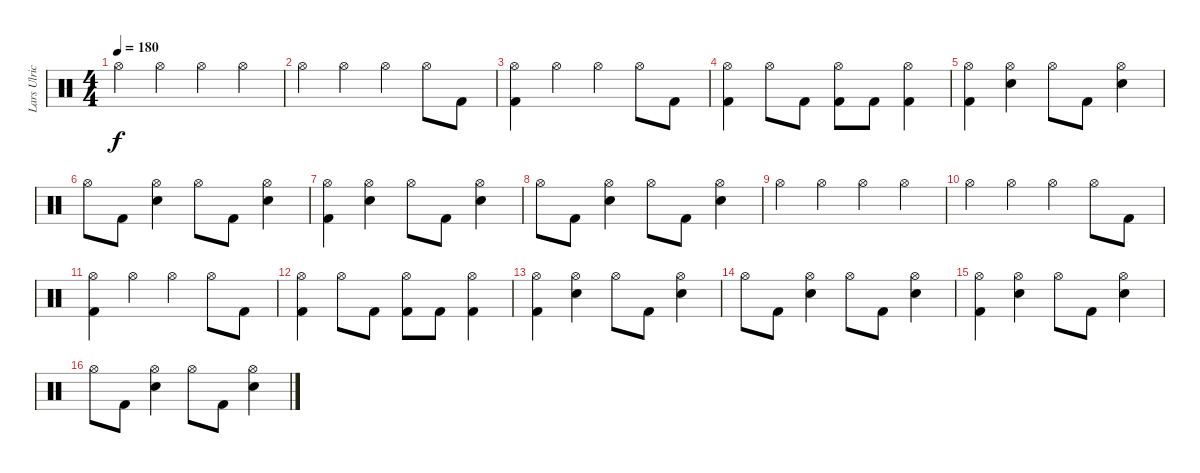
\track ("Lars Ulrich" "Lars Ulric") {instrument percussion}
\staff {score}
\articulation defaults
\ts (4 4)
\tempo 180
\clef neutral
\ks c "Hi-Hat (open)".4{dy f} "Hi-Hat (open)".4 "Hi-Hat (open)".4 "Hi-Hat (open)".4
|
"Hi-Hat (open)".4 "Hi-Hat (open)".4 "Hi-Hat (open)".4 "Hi-Hat (open)".8 "Kick (hit) 2".8 |
("Hi-Hat (open)" "Kick (hit) 2").4 "Hi-Hat (open)".4 "Hi-Hat (open)".4 "Hi-Hat (open)".8 "Kick (hit) 2".8 |
("Hi-Hat (open)" "Kick (hit) 2").4 "Hi-Hat (open)".8 "Kick (hit) 2".8 ("Hi-Hat (open)" "Kick (hit) 2").8 "Kick (hit) 2".8 ("Hi-Hat (open)" "Kick (hit) 2").4 |
("Hi-Hat (open)" "Kick (hit) 2").4 ("Hi-Hat (open)" "Electric Snare (hit)").4 "Hi-Hat (open)".8 "Kick (hit) 2".8 ("Hi-Hat (open)" "Electric Snare (hit)").4 |
"Hi-Hat (open)".8 "Kick (hit) 2".8 ("Hi-Hat (open)" "Electric Snare (hit)").4 "Hi-Hat (open)".8 "Kick (hit) 2".8 ("Hi-Hat (open)" "Electric Snare (hit)").4 |
("Hi-Hat (open)" "Kick (hit) 2").4 ("Hi-Hat (open)" "Electric Snare (hit)").4 "Hi-Hat (open)".8 "Kick (hit) 2".8 ("Hi-Hat (open)" "Electric Snare (hit)").4 |
"Hi-Hat (open)".8 "Kick (hit) 2".8 ("Hi-Hat (open)" "Electric Snare (hit)").4 "Hi-Hat (open)".8 "Kick (hit) 2".8 ("Hi-Hat (open)" "Electric Snare (hit)").4 |
"Hi-Hat (open)".4 "Hi-Hat (open)".4 "Hi-Hat (open)".4 "Hi-Hat (open)".4 |
"Hi-Hat (open)".4 "Hi-Hat (open)".4 "Hi-Hat (open)".4 "Hi-Hat (open)".8 "Kick (hit) 2".8 |
("Hi-Hat (open)" "Kick (hit) 2").4 "Hi-Hat (open)".4 "Hi-Hat (open)".4 "Hi-Hat (open)".8 "Kick (hit) 2".8 |
("Hi-Hat (open)" "Kick (hit) 2").4 "Hi-Hat (open)".8 "Kick (hit) 2".8 ("Hi-Hat (open)" "Kick (hit) 2").8 "Kick (hit) 2".8 ("Hi-Hat (open)" "Kick (hit) 2").4 |
("Hi-Hat (open)" "Kick (hit) 2").4 ("Hi-Hat (open)" "Electric Snare (hit)").4 "Hi-Hat (open)".8 "Kick (hit) 2".8 ("Hi-Hat (open)" "Electric Snare (hit)").4 |
"Hi-Hat (open)".8 "Kick (hit) 2".8 ("Hi-Hat (open)" "Electric Snare (hit)").4 "Hi-Hat (open)".8 "Kick (hit) 2".8 ("Hi-Hat (open)" "Electric Snare (hit)").4 |
("Hi-Hat (open)" "Kick (hit) 2").4 ("Hi-Hat (open)" "Electric Snare (hit)").4 "Hi-Hat (open)".8 "Kick (hit) 2".8 ("Hi-Hat (open)" "Electric Snare (hit)").4 |
"Hi-Hat (open)".8 "Kick (hit) 2".8 ("Hi-Hat (open)" "Electric Snare (hit)").4 "Hi-Hat (open)".8 "Kick (hit) 2".8 ("Hi-Hat (open)" "Electric Snare (hit)").4
